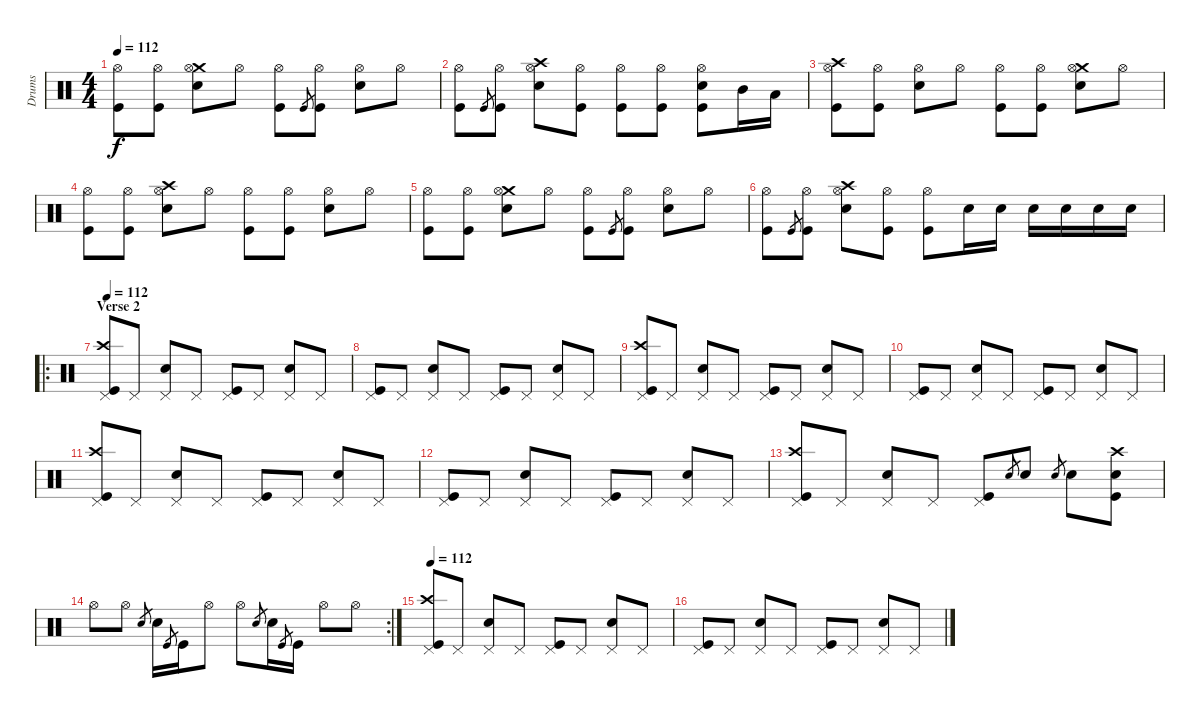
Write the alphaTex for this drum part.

\track ("Drums" "Drums") {instrument percussion}
\staff {score}
\articulation defaults
\ts (4 4)
\tempo 112
\clef neutral
\ks c
("Hi-Hat (open)" "Kick (hit)").8{dy f} ("Hi-Hat (open)" "Kick (hit)").8 ("Crash medium (hit)" "Hi-Hat (open)" "Snare (hit) 2").8 "Hi-Hat (open)".8 ("Hi-Hat (open)" "Kick (hit)").8 "Kick (hit)".8{gr} ("Hi-Hat (open)" "Kick (hit)").8 ("Hi-Hat (open)" "Snare (hit) 2").8 "Hi-Hat (open)".8 |
("Hi-Hat (open)" "Kick (hit)").8 "Kick (hit)".8{gr} ("Hi-Hat (open)" "Kick (hit)").8 ("Crash high (hit)" "Hi-Hat (open)" "Snare (hit) 2").8 ("Hi-Hat (open)" "Kick (hit)").8 ("Hi-Hat (open)" "Kick (hit)").8 ("Hi-Hat (open)" "Kick (hit)").8 ("Hi-Hat (open)" "Snare (hit) 2" "Kick (hit)").8 "Mid Tom (hit)".16 "Low Tom (hit)".16 |
("Crash high (hit)" "Hi-Hat (open)" "Kick (hit)").8 ("Hi-Hat (open)" "Kick (hit)").8 ("Hi-Hat (open)" "Snare (hit) 2").8 "Hi-Hat (open)".8 ("Hi-Hat (open)" "Kick (hit)").8 ("Hi-Hat (open)" "Kick (hit)").8 ("Crash medium (hit)" "Hi-Hat (open)" "Snare (hit) 2").8 "Hi-Hat (open)".8 |
("Hi-Hat (open)" "Kick (hit)").8 ("Hi-Hat (open)" "Kick (hit)").8 ("Crash high (hit)" "Hi-Hat (open)" "Snare (hit) 2").8 "Hi-Hat (open)".8 ("Hi-Hat (open)" "Kick (hit)").8 ("Hi-Hat (open)" "Kick (hit)").8 ("Hi-Hat (open)" "Snare (hit) 2").8 "Hi-Hat (open)".8 |
("Hi-Hat (open)" "Kick (hit)").8 ("Hi-Hat (open)" "Kick (hit)").8 ("Crash medium (hit)" "Hi-Hat (open)" "Snare (hit) 2").8 "Hi-Hat (open)".8 ("Hi-Hat (open)" "Kick (hit)").8 "Kick (hit)".8{gr} ("Hi-Hat (open)" "Kick (hit)").8 ("Hi-Hat (open)" "Snare (hit) 2").8 "Hi-Hat (open)".8 |
("Hi-Hat (open)" "Kick (hit)").8 "Kick (hit)".8{gr} ("Hi-Hat (open)" "Kick (hit)").8 ("Crash high (hit)" "Hi-Hat (open)" "Snare (hit) 2").8 ("Hi-Hat (open)" "Kick (hit)").8 ("Hi-Hat (open)" "Kick (hit)").8 "Snare (hit) 2".16 "Snare (hit) 2".16 "Snare (hit) 2".16 "Snare (hit) 2".16 "Snare (hit) 2".16 "Snare (hit) 2".16 |
\ro
\section ("" "Verse 2")
\tempo 112
("Crash high (hit)" "Pedal Hi-Hat (hit)" "Kick (hit)").8 "Pedal Hi-Hat (hit)".8 ("Pedal Hi-Hat (hit)" "Snare (hit) 2").8 "Pedal Hi-Hat (hit)".8 ("Pedal Hi-Hat (hit)" "Kick (hit)").8 "Pedal Hi-Hat (hit)".8 ("Pedal Hi-Hat (hit)" "Snare (hit) 2").8 "Pedal Hi-Hat (hit)".8 |
("Pedal Hi-Hat (hit)" "Kick (hit)").8 "Pedal Hi-Hat (hit)".8 ("Pedal Hi-Hat (hit)" "Snare (hit) 2").8 "Pedal Hi-Hat (hit)".8 ("Pedal Hi-Hat (hit)" "Kick (hit)").8 "Pedal Hi-Hat (hit)".8 ("Pedal Hi-Hat (hit)" "Snare (hit) 2").8 "Pedal Hi-Hat (hit)".8 |
("Crash high (hit)" "Pedal Hi-Hat (hit)" "Kick (hit)").8 "Pedal Hi-Hat (hit)".8 ("Pedal Hi-Hat (hit)" "Snare (hit) 2").8 "Pedal Hi-Hat (hit)".8 ("Pedal Hi-Hat (hit)" "Kick (hit)").8 "Pedal Hi-Hat (hit)".8 ("Pedal Hi-Hat (hit)" "Snare (hit) 2").8 "Pedal Hi-Hat (hit)".8 |
("Pedal Hi-Hat (hit)" "Kick (hit)").8 "Pedal Hi-Hat (hit)".8 ("Pedal Hi-Hat (hit)" "Snare (hit) 2").8 "Pedal Hi-Hat (hit)".8 ("Pedal Hi-Hat (hit)" "Kick (hit)").8 "Pedal Hi-Hat (hit)".8 ("Pedal Hi-Hat (hit)" "Snare (hit) 2").8 "Pedal Hi-Hat (hit)".8 |
("Crash high (hit)" "Pedal Hi-Hat (hit)" "Kick (hit)").8 "Pedal Hi-Hat (hit)".8 ("Pedal Hi-Hat (hit)" "Snare (hit) 2").8 "Pedal Hi-Hat (hit)".8 ("Pedal Hi-Hat (hit)" "Kick (hit)").8 "Pedal Hi-Hat (hit)".8 ("Pedal Hi-Hat (hit)" "Snare (hit) 2").8 "Pedal Hi-Hat (hit)".8 |
("Pedal Hi-Hat (hit)" "Kick (hit)").8 "Pedal Hi-Hat (hit)".8 ("Pedal Hi-Hat (hit)" "Snare (hit) 2").8 "Pedal Hi-Hat (hit)".8 ("Pedal Hi-Hat (hit)" "Kick (hit)").8 "Pedal Hi-Hat (hit)".8 ("Pedal Hi-Hat (hit)" "Snare (hit) 2").8 "Pedal Hi-Hat (hit)".8 |
("Crash high (hit)" "Pedal Hi-Hat (hit)" "Kick (hit)").8 "Pedal Hi-Hat (hit)".8 ("Pedal Hi-Hat (hit)" "Snare (hit) 2").8 "Pedal Hi-Hat (hit)".8 ("Pedal Hi-Hat (hit)" "Kick (hit)").8 "Snare (hit) 2".8{gr} "Snare (hit) 2".8 "Snare (hit) 2".8{gr} "Snare (hit) 2".8 ("Crash high (hit)" "Snare (hit) 2" "Kick (hit)").8 |
\rc 2 "Hi-Hat (open)".8 "Hi-Hat (open)".8 "Snare (hit) 2".8{gr} "Snare (hit) 2".16 "Kick (hit)".8{gr} "Kick (hit)".16 "Hi-Hat (open)".8 "Hi-Hat (open)".8 "Snare (hit) 2".8{gr} "Snare (hit) 2".16 "Kick (hit)".8{gr} "Kick (hit)".16 "Hi-Hat (open)".8 "Hi-Hat (open)".8
|
\tempo 112
("Crash high (hit)" "Pedal Hi-Hat (hit)" "Kick (hit)").8{volume 16} "Pedal Hi-Hat (hit)".8 ("Pedal Hi-Hat (hit)" "Snare (hit) 2").8 "Pedal Hi-Hat (hit)".8 ("Pedal Hi-Hat (hit)" "Kick (hit)").8 "Pedal Hi-Hat (hit)".8 ("Pedal Hi-Hat (hit)" "Snare (hit) 2").8 "Pedal Hi-Hat (hit)".8 |
("Pedal Hi-Hat (hit)" "Kick (hit)").8 "Pedal Hi-Hat (hit)".8 ("Pedal Hi-Hat (hit)" "Snare (hit) 2").8 "Pedal Hi-Hat (hit)".8 ("Pedal Hi-Hat (hit)" "Kick (hit)").8 "Pedal Hi-Hat (hit)".8 ("Pedal Hi-Hat (hit)" "Snare (hit) 2").8 "Pedal Hi-Hat (hit)".8
